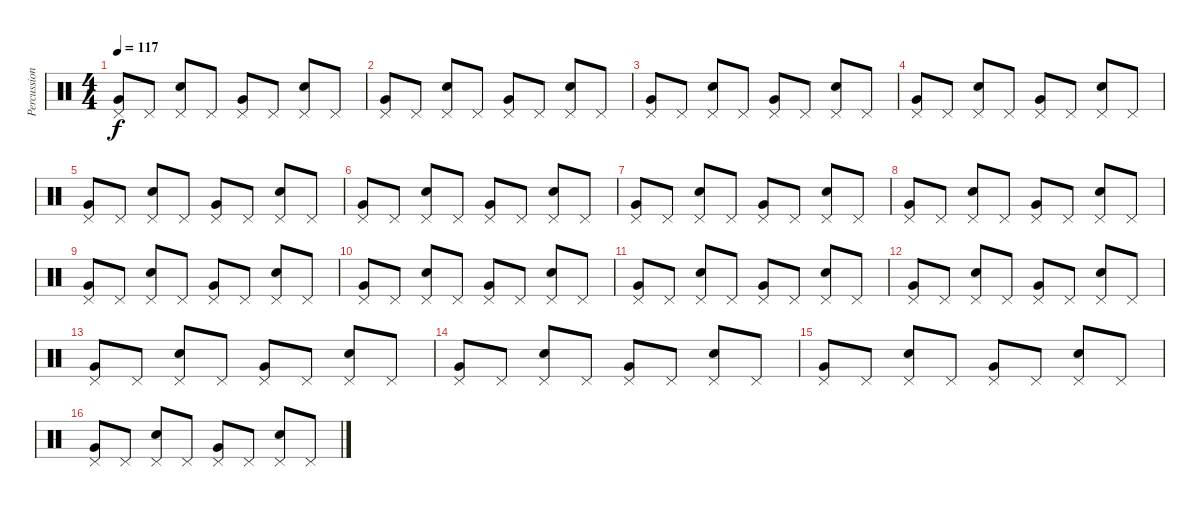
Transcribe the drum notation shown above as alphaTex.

\track ("Percussion" "Percussion") {instrument percussion}
\staff {score}
\articulation defaults
\ts (4 4)
\tempo 117
\clef neutral
\ks c
("Very Low Tom (hit)" "Pedal Hi-Hat (hit)").8{dy f} "Pedal Hi-Hat (hit)".8 ("Electric Snare (hit)" "Pedal Hi-Hat (hit)").8 "Pedal Hi-Hat (hit)".8 ("Very Low Tom (hit)" "Pedal Hi-Hat (hit)").8 "Pedal Hi-Hat (hit)".8 ("Electric Snare (hit)" "Pedal Hi-Hat (hit)").8 "Pedal Hi-Hat (hit)".8 |
("Very Low Tom (hit)" "Pedal Hi-Hat (hit)").8 "Pedal Hi-Hat (hit)".8 ("Electric Snare (hit)" "Pedal Hi-Hat (hit)").8 "Pedal Hi-Hat (hit)".8 ("Very Low Tom (hit)" "Pedal Hi-Hat (hit)").8 "Pedal Hi-Hat (hit)".8 ("Electric Snare (hit)" "Pedal Hi-Hat (hit)").8 "Pedal Hi-Hat (hit)".8 |
("Very Low Tom (hit)" "Pedal Hi-Hat (hit)").8 "Pedal Hi-Hat (hit)".8 ("Electric Snare (hit)" "Pedal Hi-Hat (hit)").8 "Pedal Hi-Hat (hit)".8 ("Very Low Tom (hit)" "Pedal Hi-Hat (hit)").8 "Pedal Hi-Hat (hit)".8 ("Electric Snare (hit)" "Pedal Hi-Hat (hit)").8 "Pedal Hi-Hat (hit)".8 |
("Very Low Tom (hit)" "Pedal Hi-Hat (hit)").8 "Pedal Hi-Hat (hit)".8 ("Electric Snare (hit)" "Pedal Hi-Hat (hit)").8 "Pedal Hi-Hat (hit)".8 ("Very Low Tom (hit)" "Pedal Hi-Hat (hit)").8 "Pedal Hi-Hat (hit)".8 ("Electric Snare (hit)" "Pedal Hi-Hat (hit)").8 "Pedal Hi-Hat (hit)".8 |
("Very Low Tom (hit)" "Pedal Hi-Hat (hit)").8 "Pedal Hi-Hat (hit)".8 ("Electric Snare (hit)" "Pedal Hi-Hat (hit)").8 "Pedal Hi-Hat (hit)".8 ("Very Low Tom (hit)" "Pedal Hi-Hat (hit)").8 "Pedal Hi-Hat (hit)".8 ("Electric Snare (hit)" "Pedal Hi-Hat (hit)").8 "Pedal Hi-Hat (hit)".8 |
("Very Low Tom (hit)" "Pedal Hi-Hat (hit)").8 "Pedal Hi-Hat (hit)".8 ("Electric Snare (hit)" "Pedal Hi-Hat (hit)").8 "Pedal Hi-Hat (hit)".8 ("Very Low Tom (hit)" "Pedal Hi-Hat (hit)").8 "Pedal Hi-Hat (hit)".8 ("Electric Snare (hit)" "Pedal Hi-Hat (hit)").8 "Pedal Hi-Hat (hit)".8 |
("Very Low Tom (hit)" "Pedal Hi-Hat (hit)").8 "Pedal Hi-Hat (hit)".8 ("Electric Snare (hit)" "Pedal Hi-Hat (hit)").8 "Pedal Hi-Hat (hit)".8 ("Very Low Tom (hit)" "Pedal Hi-Hat (hit)").8 "Pedal Hi-Hat (hit)".8 ("Electric Snare (hit)" "Pedal Hi-Hat (hit)").8 "Pedal Hi-Hat (hit)".8 |
("Very Low Tom (hit)" "Pedal Hi-Hat (hit)").8 "Pedal Hi-Hat (hit)".8 ("Electric Snare (hit)" "Pedal Hi-Hat (hit)").8 "Pedal Hi-Hat (hit)".8 ("Very Low Tom (hit)" "Pedal Hi-Hat (hit)").8 "Pedal Hi-Hat (hit)".8 ("Electric Snare (hit)" "Pedal Hi-Hat (hit)").8 "Pedal Hi-Hat (hit)".8 |
("Very Low Tom (hit)" "Pedal Hi-Hat (hit)").8 "Pedal Hi-Hat (hit)".8 ("Electric Snare (hit)" "Pedal Hi-Hat (hit)").8 "Pedal Hi-Hat (hit)".8 ("Very Low Tom (hit)" "Pedal Hi-Hat (hit)").8 "Pedal Hi-Hat (hit)".8 ("Electric Snare (hit)" "Pedal Hi-Hat (hit)").8 "Pedal Hi-Hat (hit)".8 |
("Very Low Tom (hit)" "Pedal Hi-Hat (hit)").8 "Pedal Hi-Hat (hit)".8 ("Electric Snare (hit)" "Pedal Hi-Hat (hit)").8 "Pedal Hi-Hat (hit)".8 ("Very Low Tom (hit)" "Pedal Hi-Hat (hit)").8 "Pedal Hi-Hat (hit)".8 ("Electric Snare (hit)" "Pedal Hi-Hat (hit)").8 "Pedal Hi-Hat (hit)".8 |
("Very Low Tom (hit)" "Pedal Hi-Hat (hit)").8 "Pedal Hi-Hat (hit)".8 ("Electric Snare (hit)" "Pedal Hi-Hat (hit)").8 "Pedal Hi-Hat (hit)".8 ("Very Low Tom (hit)" "Pedal Hi-Hat (hit)").8 "Pedal Hi-Hat (hit)".8 ("Electric Snare (hit)" "Pedal Hi-Hat (hit)").8 "Pedal Hi-Hat (hit)".8 |
("Very Low Tom (hit)" "Pedal Hi-Hat (hit)").8 "Pedal Hi-Hat (hit)".8 ("Electric Snare (hit)" "Pedal Hi-Hat (hit)").8 "Pedal Hi-Hat (hit)".8 ("Very Low Tom (hit)" "Pedal Hi-Hat (hit)").8 "Pedal Hi-Hat (hit)".8 ("Electric Snare (hit)" "Pedal Hi-Hat (hit)").8 "Pedal Hi-Hat (hit)".8 |
("Very Low Tom (hit)" "Pedal Hi-Hat (hit)").8 "Pedal Hi-Hat (hit)".8 ("Electric Snare (hit)" "Pedal Hi-Hat (hit)").8 "Pedal Hi-Hat (hit)".8 ("Very Low Tom (hit)" "Pedal Hi-Hat (hit)").8 "Pedal Hi-Hat (hit)".8 ("Electric Snare (hit)" "Pedal Hi-Hat (hit)").8 "Pedal Hi-Hat (hit)".8 |
("Very Low Tom (hit)" "Pedal Hi-Hat (hit)").8 "Pedal Hi-Hat (hit)".8 ("Electric Snare (hit)" "Pedal Hi-Hat (hit)").8 "Pedal Hi-Hat (hit)".8 ("Very Low Tom (hit)" "Pedal Hi-Hat (hit)").8 "Pedal Hi-Hat (hit)".8 ("Electric Snare (hit)" "Pedal Hi-Hat (hit)").8 "Pedal Hi-Hat (hit)".8 |
("Very Low Tom (hit)" "Pedal Hi-Hat (hit)").8 "Pedal Hi-Hat (hit)".8 ("Electric Snare (hit)" "Pedal Hi-Hat (hit)").8 "Pedal Hi-Hat (hit)".8 ("Very Low Tom (hit)" "Pedal Hi-Hat (hit)").8 "Pedal Hi-Hat (hit)".8 ("Electric Snare (hit)" "Pedal Hi-Hat (hit)").8 "Pedal Hi-Hat (hit)".8 |
("Very Low Tom (hit)" "Pedal Hi-Hat (hit)").8 "Pedal Hi-Hat (hit)".8 ("Electric Snare (hit)" "Pedal Hi-Hat (hit)").8 "Pedal Hi-Hat (hit)".8 ("Very Low Tom (hit)" "Pedal Hi-Hat (hit)").8 "Pedal Hi-Hat (hit)".8 ("Electric Snare (hit)" "Pedal Hi-Hat (hit)").8 "Pedal Hi-Hat (hit)".8
